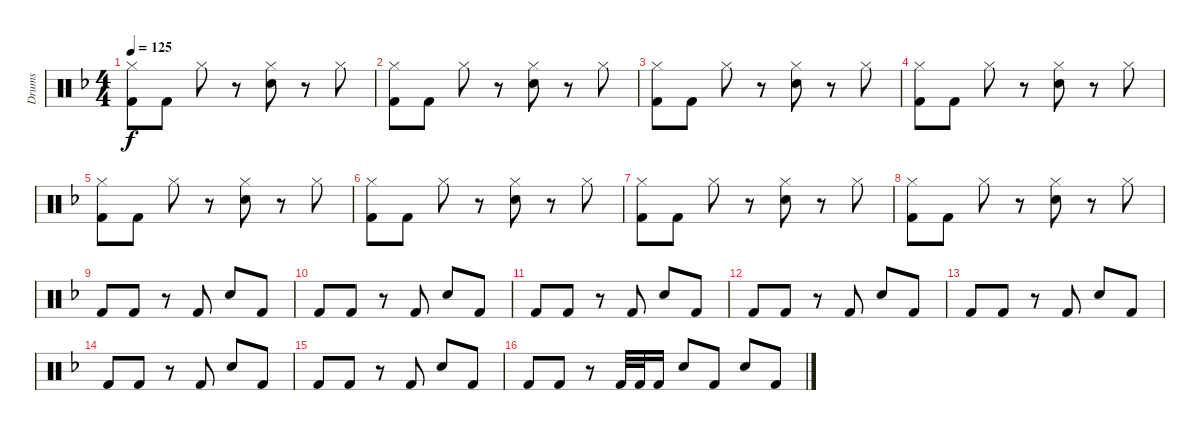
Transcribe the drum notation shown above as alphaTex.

\track ("Drums" "Drums") {instrument percussion}
\staff {score}
\articulation defaults
\ts (4 4)
\tempo 125
\clef neutral
\ks f
("Hi-Hat (closed)" "Kick (hit) 2").8{dy f} "Kick (hit) 2".8 "Hi-Hat (closed)".8 r.8 ("Hi-Hat (closed)" "Snare (hit) 2").8 r.8 "Hi-Hat (closed)".8 |
("Hi-Hat (closed)" "Kick (hit) 2").8 "Kick (hit) 2".8 "Hi-Hat (closed)".8 r.8 ("Hi-Hat (closed)" "Snare (hit) 2").8 r.8 "Hi-Hat (closed)".8 |
("Hi-Hat (closed)" "Kick (hit) 2").8 "Kick (hit) 2".8 "Hi-Hat (closed)".8 r.8 ("Hi-Hat (closed)" "Snare (hit) 2").8 r.8 "Hi-Hat (closed)".8 |
("Hi-Hat (closed)" "Kick (hit) 2").8 "Kick (hit) 2".8 "Hi-Hat (closed)".8 r.8 ("Hi-Hat (closed)" "Snare (hit) 2").8 r.8 "Hi-Hat (closed)".8 |
("Hi-Hat (closed)" "Kick (hit) 2").8 "Kick (hit) 2".8 "Hi-Hat (closed)".8 r.8 ("Hi-Hat (closed)" "Snare (hit) 2").8 r.8 "Hi-Hat (closed)".8 |
("Hi-Hat (closed)" "Kick (hit) 2").8 "Kick (hit) 2".8 "Hi-Hat (closed)".8 r.8 ("Hi-Hat (closed)" "Snare (hit) 2").8 r.8 "Hi-Hat (closed)".8 |
("Hi-Hat (closed)" "Kick (hit) 2").8 "Kick (hit) 2".8 "Hi-Hat (closed)".8 r.8 ("Hi-Hat (closed)" "Snare (hit) 2").8 r.8 "Hi-Hat (closed)".8 |
("Hi-Hat (closed)" "Kick (hit) 2").8 "Kick (hit) 2".8 "Hi-Hat (closed)".8 r.8 ("Hi-Hat (closed)" "Snare (hit) 2").8 r.8 "Hi-Hat (closed)".8 |
"Kick (hit) 2".8 "Kick (hit) 2".8 r.8 "Kick (hit) 2".8 "Snare (hit) 2".8 "Kick (hit) 2".8 |
"Kick (hit) 2".8 "Kick (hit) 2".8 r.8 "Kick (hit) 2".8 "Snare (hit) 2".8 "Kick (hit) 2".8 |
"Kick (hit) 2".8 "Kick (hit) 2".8 r.8 "Kick (hit) 2".8 "Snare (hit) 2".8 "Kick (hit) 2".8 |
"Kick (hit) 2".8 "Kick (hit) 2".8 r.8 "Kick (hit) 2".8 "Snare (hit) 2".8 "Kick (hit) 2".8 |
"Kick (hit) 2".8 "Kick (hit) 2".8 r.8 "Kick (hit) 2".8 "Snare (hit) 2".8 "Kick (hit) 2".8 |
"Kick (hit) 2".8 "Kick (hit) 2".8 r.8 "Kick (hit) 2".8 "Snare (hit) 2".8 "Kick (hit) 2".8 |
"Kick (hit) 2".8 "Kick (hit) 2".8 r.8 "Kick (hit) 2".8 "Snare (hit) 2".8 "Kick (hit) 2".8 |
"Kick (hit) 2".8 "Kick (hit) 2".8 r.8 "Kick (hit) 2".32 "Kick (hit) 2".32 "Kick (hit) 2".16 "Snare (hit) 2".8 "Kick (hit) 2".8 "Snare (hit) 2".8 "Kick (hit) 2".8
